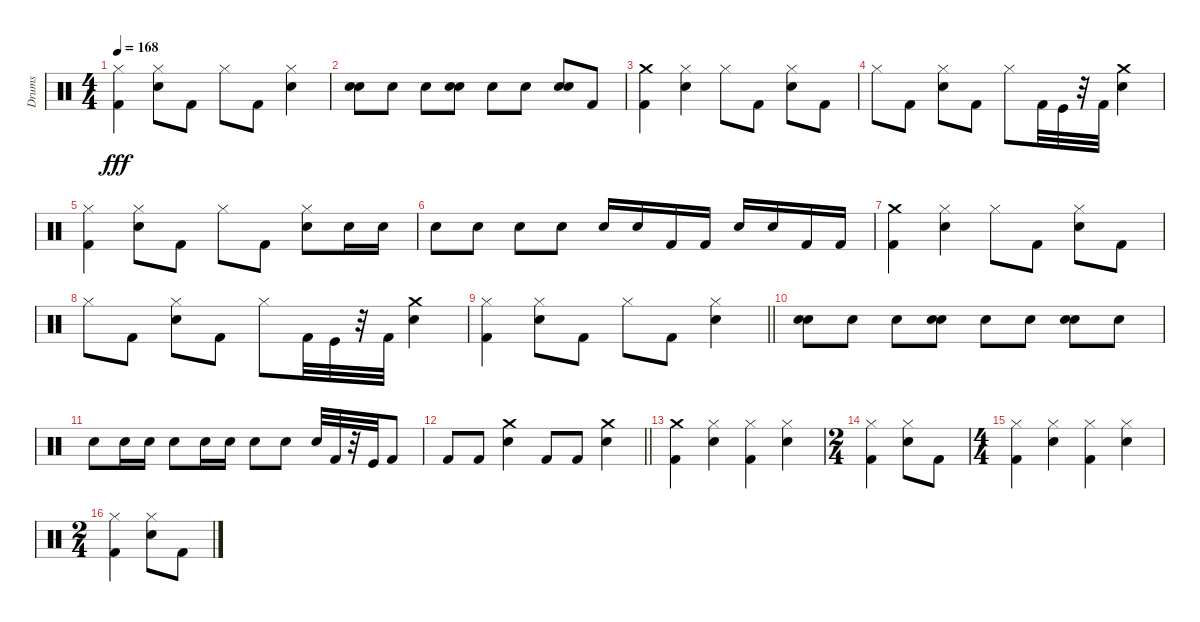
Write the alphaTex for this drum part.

\track ("Drums" "Drums") {instrument percussion}
\staff {score}
\articulation defaults
\ts (4 4)
\tempo 168
\clef neutral
\ks c
("Kick (hit) 2" "Hi-Hat (closed)").4{dy fff} ("Hi-Hat (closed)" "Snare (hit) 2").8 "Kick (hit) 2".8 "Hi-Hat (closed)".8 "Kick (hit) 2".8 ("Snare (hit) 2" "Hi-Hat (closed)").4 |
("Snare (hit) 2" "Snare (hit) 2").8 "Snare (hit) 2".8 "Snare (hit) 2".8 ("Snare (hit) 2" "Snare (hit) 2").8 "Snare (hit) 2".8 "Snare (hit) 2".8 ("Snare (hit) 2" "Snare (hit) 2").8 "Kick (hit) 2".8 |
("Kick (hit) 2" "Crash medium (hit)").4 ("Hi-Hat (closed)" "Snare (hit) 2").4 "Hi-Hat (closed)".8 "Kick (hit) 2".8 ("Snare (hit) 2" "Hi-Hat (closed)").8 "Kick (hit) 2".8 |
"Hi-Hat (closed)".8 "Kick (hit) 2".8 ("Snare (hit) 2" "Hi-Hat (closed)").8 "Kick (hit) 2".8 "Hi-Hat (closed)".8 "Kick (hit) 2".32 "Kick (hit)".32 r.32 "Kick (hit) 2".32 ("Crash medium (hit)" "Snare (hit) 2").4 |
("Hi-Hat (closed)" "Kick (hit) 2").4 ("Snare (hit) 2" "Hi-Hat (closed)").8 "Kick (hit) 2".8 "Hi-Hat (closed)".8 "Kick (hit) 2".8 ("Snare (hit) 2" "Hi-Hat (closed)").8 "Snare (hit) 2".16 "Snare (hit) 2".16 |
"Snare (hit) 2".8 "Snare (hit) 2".8 "Snare (hit) 2".8 "Snare (hit) 2".8 "Snare (hit) 2".16 "Snare (hit) 2".16 "Kick (hit) 2".16 "Kick (hit) 2".16 "Snare (hit) 2".16 "Snare (hit) 2".16 "Kick (hit) 2".16 "Kick (hit) 2".16 |
("Kick (hit) 2" "Crash medium (hit)").4 ("Hi-Hat (closed)" "Snare (hit) 2").4 "Hi-Hat (closed)".8 "Kick (hit) 2".8 ("Snare (hit) 2" "Hi-Hat (closed)").8 "Kick (hit) 2".8 |
"Hi-Hat (closed)".8 "Kick (hit) 2".8 ("Snare (hit) 2" "Hi-Hat (closed)").8 "Kick (hit) 2".8 "Hi-Hat (closed)".8 "Kick (hit) 2".32 "Kick (hit)".32 r.32 "Kick (hit) 2".32 ("Crash medium (hit)" "Snare (hit) 2").4 |
\barLineRight lightlight
("Hi-Hat (closed)" "Kick (hit) 2").4 ("Snare (hit) 2" "Hi-Hat (closed)").8 "Kick (hit) 2".8 "Hi-Hat (closed)".8 "Kick (hit) 2".8 ("Snare (hit) 2" "Hi-Hat (closed)").4 |
("Snare (hit) 2" "Snare (hit) 2").8 "Snare (hit) 2".8 "Snare (hit) 2".8 ("Snare (hit) 2" "Snare (hit) 2").8 "Snare (hit) 2".8 "Snare (hit) 2".8 ("Snare (hit) 2" "Snare (hit) 2").8 "Snare (hit) 2".8 |
"Snare (hit) 2".8 "Snare (hit) 2".16 "Snare (hit) 2".16 "Snare (hit) 2".8 "Snare (hit) 2".16 "Snare (hit) 2".16 "Snare (hit) 2".8 "Snare (hit) 2".8 "Snare (hit) 2".32 "Kick (hit) 2".32 r.32 "Kick (hit)".32 "Kick (hit) 2".8 |
\barLineRight lightlight "Kick (hit) 2".8 "Kick (hit) 2".8
("Crash medium (hit)" "Snare (hit) 2").4 "Kick (hit) 2".8 "Kick (hit) 2".8 ("Crash medium (hit)" "Snare (hit) 2").4 |
("Kick (hit) 2" "Crash medium (hit)").4 ("Hi-Hat (closed)" "Snare (hit) 2").4 ("Hi-Hat (closed)" "Kick (hit) 2").4 ("Snare (hit) 2" "Hi-Hat (closed)").4 |
\ts (2 4)
("Hi-Hat (closed)" "Kick (hit) 2").4 ("Snare (hit) 2" "Hi-Hat (closed)").8 "Kick (hit) 2".8 |
\ts (4 4)
("Kick (hit) 2" "Hi-Hat (closed)").4 ("Snare (hit) 2" "Hi-Hat (closed)").4 ("Kick (hit) 2" "Hi-Hat (closed)").4 ("Snare (hit) 2" "Hi-Hat (closed)").4 |
\ts (2 4)
("Hi-Hat (closed)" "Kick (hit) 2").4 ("Snare (hit) 2" "Hi-Hat (closed)").8 "Kick (hit) 2".8
